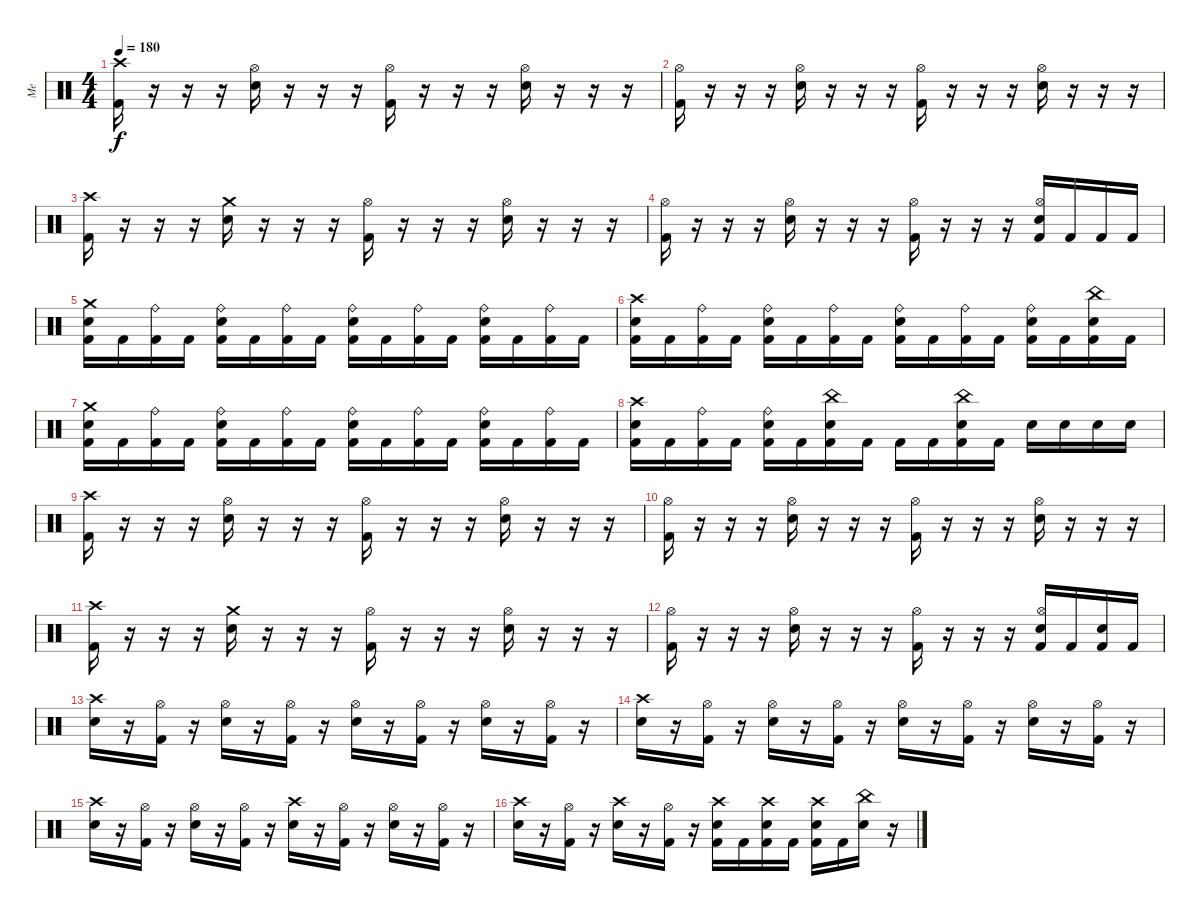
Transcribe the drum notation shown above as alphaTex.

\track ("Me" "Me") {instrument percussion}
\staff {score}
\articulation defaults
\ts (4 4)
\tempo 180
\clef neutral
\ks c
("Crash high (hit)" "Kick (hit) 2").16{dy f} r.16 r.16 r.16 ("Hi-Hat (open)" "Electric Snare (hit)").16 r.16 r.16 r.16 ("Hi-Hat (open)" "Kick (hit) 2").16 r.16 r.16 r.16 ("Hi-Hat (open)" "Electric Snare (hit)").16 r.16 r.16 r.16 |
("Hi-Hat (open)" "Kick (hit) 2").16 r.16 r.16 r.16 ("Hi-Hat (open)" "Electric Snare (hit)").16 r.16 r.16 r.16 ("Hi-Hat (open)" "Kick (hit) 2").16 r.16 r.16 r.16 ("Hi-Hat (open)" "Electric Snare (hit)").16 r.16 r.16 r.16 |
("Crash high (hit)" "Kick (hit) 2").16 r.16 r.16 r.16 ("Crash medium (hit)" "Electric Snare (hit)").16 r.16 r.16 r.16 ("Hi-Hat (open)" "Kick (hit) 2").16 r.16 r.16 r.16 ("Hi-Hat (open)" "Electric Snare (hit)").16 r.16 r.16 r.16 |
("Hi-Hat (open)" "Kick (hit) 2").16 r.16 r.16 r.16 ("Hi-Hat (open)" "Electric Snare (hit)").16 r.16 r.16 r.16 ("Hi-Hat (open)" "Kick (hit) 2").16 r.16 r.16 r.16 ("Hi-Hat (open)" "Electric Snare (hit)" "Kick (hit) 2").16 "Kick (hit) 2".16 "Kick (hit) 2".16 "Kick (hit) 2".16 |
("Crash medium (hit)" "Electric Snare (hit)" "Kick (hit) 2").16 "Kick (hit) 2".16 ("Ride (bell)" "Kick (hit) 2").16 "Kick (hit) 2".16 ("Ride (bell)" "Electric Snare (hit)" "Kick (hit) 2").16 "Kick (hit) 2".16 ("Ride (bell)" "Kick (hit) 2").16 "Kick (hit) 2".16 ("Ride (bell)" "Electric Snare (hit)" "Kick (hit) 2").16 "Kick (hit) 2".16 ("Ride (bell)" "Kick (hit) 2").16 "Kick (hit) 2".16 ("Ride (bell)" "Electric Snare (hit)" "Kick (hit) 2").16 "Kick (hit) 2".16 ("Ride (bell)" "Kick (hit) 2").16 "Kick (hit) 2".16 |
("Crash high (hit)" "Electric Snare (hit)" "Kick (hit) 2").16 "Kick (hit) 2".16 ("Ride (bell)" "Kick (hit) 2").16 "Kick (hit) 2".16 ("Ride (bell)" "Electric Snare (hit)" "Kick (hit) 2").16 "Kick (hit) 2".16 ("Ride (bell)" "Kick (hit) 2").16 "Kick (hit) 2".16 ("Ride (bell)" "Electric Snare (hit)" "Kick (hit) 2").16 "Kick (hit) 2".16 ("Ride (bell)" "Kick (hit) 2").16 "Kick (hit) 2".16 ("Ride (bell)" "Electric Snare (hit)" "Kick (hit) 2").16 "Kick (hit) 2".16 ("China (hit)" "Electric Snare (hit)" "Kick (hit) 2").16 "Kick (hit) 2".16 |
("Crash medium (hit)" "Electric Snare (hit)" "Kick (hit) 2").16 "Kick (hit) 2".16 ("Ride (bell)" "Kick (hit) 2").16 "Kick (hit) 2".16 ("Ride (bell)" "Electric Snare (hit)" "Kick (hit) 2").16 "Kick (hit) 2".16 ("Ride (bell)" "Kick (hit) 2").16 "Kick (hit) 2".16 ("Ride (bell)" "Electric Snare (hit)" "Kick (hit) 2").16 "Kick (hit) 2".16 ("Ride (bell)" "Kick (hit) 2").16 "Kick (hit) 2".16 ("Ride (bell)" "Electric Snare (hit)" "Kick (hit) 2").16 "Kick (hit) 2".16 ("Ride (bell)" "Kick (hit) 2").16 "Kick (hit) 2".16 |
("Crash high (hit)" "Electric Snare (hit)" "Kick (hit) 2").16 "Kick (hit) 2".16 ("Ride (bell)" "Kick (hit) 2").16 "Kick (hit) 2".16 ("Ride (bell)" "Electric Snare (hit)" "Kick (hit) 2").16 "Kick (hit) 2".16 ("China (hit)" "Electric Snare (hit)" "Kick (hit) 2").16 "Kick (hit) 2".16 "Kick (hit) 2".16 "Kick (hit) 2".16 ("China (hit)" "Electric Snare (hit)" "Kick (hit) 2").16 "Kick (hit) 2".16 "Electric Snare (hit)".16 "Electric Snare (hit)".16 "Electric Snare (hit)".16 "Electric Snare (hit)".16 |
("Crash high (hit)" "Kick (hit) 2").16 r.16 r.16 r.16 ("Hi-Hat (open)" "Electric Snare (hit)").16 r.16 r.16 r.16 ("Hi-Hat (open)" "Kick (hit) 2").16 r.16 r.16 r.16 ("Hi-Hat (open)" "Electric Snare (hit)").16 r.16 r.16 r.16 |
("Hi-Hat (open)" "Kick (hit) 2").16 r.16 r.16 r.16 ("Hi-Hat (open)" "Electric Snare (hit)").16 r.16 r.16 r.16 ("Hi-Hat (open)" "Kick (hit) 2").16 r.16 r.16 r.16 ("Hi-Hat (open)" "Electric Snare (hit)").16 r.16 r.16 r.16 |
("Crash high (hit)" "Kick (hit) 2").16 r.16 r.16 r.16 ("Crash medium (hit)" "Electric Snare (hit)").16 r.16 r.16 r.16 ("Hi-Hat (open)" "Kick (hit) 2").16 r.16 r.16 r.16 ("Hi-Hat (open)" "Electric Snare (hit)").16 r.16 r.16 r.16 |
("Hi-Hat (open)" "Kick (hit) 2").16 r.16 r.16 r.16 ("Hi-Hat (open)" "Electric Snare (hit)").16 r.16 r.16 r.16 ("Hi-Hat (open)" "Kick (hit) 2").16 r.16 r.16 r.16 ("Hi-Hat (open)" "Electric Snare (hit)" "Kick (hit) 2").16 "Kick (hit) 2".16 ("Electric Snare (hit)" "Kick (hit) 2").16 "Kick (hit) 2".16 |
("Crash high (hit)" "Electric Snare (hit)").16 r.16 ("Hi-Hat (open)" "Kick (hit) 2").16 r.16 ("Hi-Hat (open)" "Electric Snare (hit)").16 r.16 ("Hi-Hat (open)" "Kick (hit) 2").16 r.16 ("Hi-Hat (open)" "Electric Snare (hit)").16 r.16 ("Hi-Hat (open)" "Kick (hit) 2").16 r.16 ("Hi-Hat (open)" "Electric Snare (hit)").16 r.16 ("Hi-Hat (open)" "Kick (hit) 2").16 r.16 |
("Crash high (hit)" "Electric Snare (hit)").16 r.16 ("Hi-Hat (open)" "Kick (hit) 2").16 r.16 ("Hi-Hat (open)" "Electric Snare (hit)").16 r.16 ("Hi-Hat (open)" "Kick (hit) 2").16 r.16 ("Hi-Hat (open)" "Electric Snare (hit)").16 r.16 ("Hi-Hat (open)" "Kick (hit) 2").16 r.16 ("Hi-Hat (open)" "Electric Snare (hit)").16 r.16 ("Hi-Hat (open)" "Kick (hit) 2").16 r.16 |
("Crash high (hit)" "Electric Snare (hit)").16 r.16 ("Hi-Hat (open)" "Kick (hit) 2").16 r.16 ("Hi-Hat (open)" "Electric Snare (hit)").16 r.16 ("Hi-Hat (open)" "Kick (hit) 2").16 r.16 ("Crash high (hit)" "Electric Snare (hit)").16 r.16 ("Hi-Hat (open)" "Kick (hit) 2").16 r.16 ("Hi-Hat (open)" "Electric Snare (hit)").16 r.16 ("Hi-Hat (open)" "Kick (hit) 2").16 r.16 |
("Crash high (hit)" "Electric Snare (hit)").16 r.16 ("Hi-Hat (open)" "Kick (hit) 2").16 r.16 ("Crash high (hit)" "Electric Snare (hit)").16 r.16 ("Hi-Hat (open)" "Kick (hit) 2").16 r.16 ("Crash high (hit)" "Electric Snare (hit)" "Kick (hit) 2").16 "Kick (hit) 2".16 ("Crash high (hit)" "Electric Snare (hit)" "Kick (hit) 2").16 "Kick (hit) 2".16 ("Crash high (hit)" "Electric Snare (hit)" "Kick (hit) 2").16 "Kick (hit) 2".16 ("China (hit)" "Electric Snare (hit)").16 r.16
